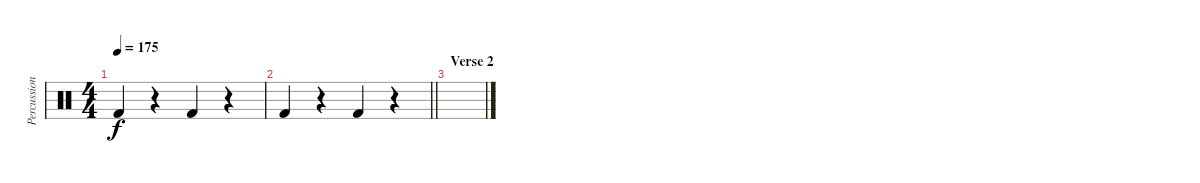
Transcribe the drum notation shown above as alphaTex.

\track ("Percussion" "Percussion") {instrument percussion}
\staff {score}
\articulation defaults
\ts (4 4)
\tempo 175
\clef neutral
\ks c "Kick (hit) 2".4{dy f}
r.4 "Kick (hit) 2".4 r.4 |
\barLineRight lightlight "Kick (hit) 2".4
r.4 "Kick (hit) 2".4 r.4 |
\section ("" "Verse 2")
